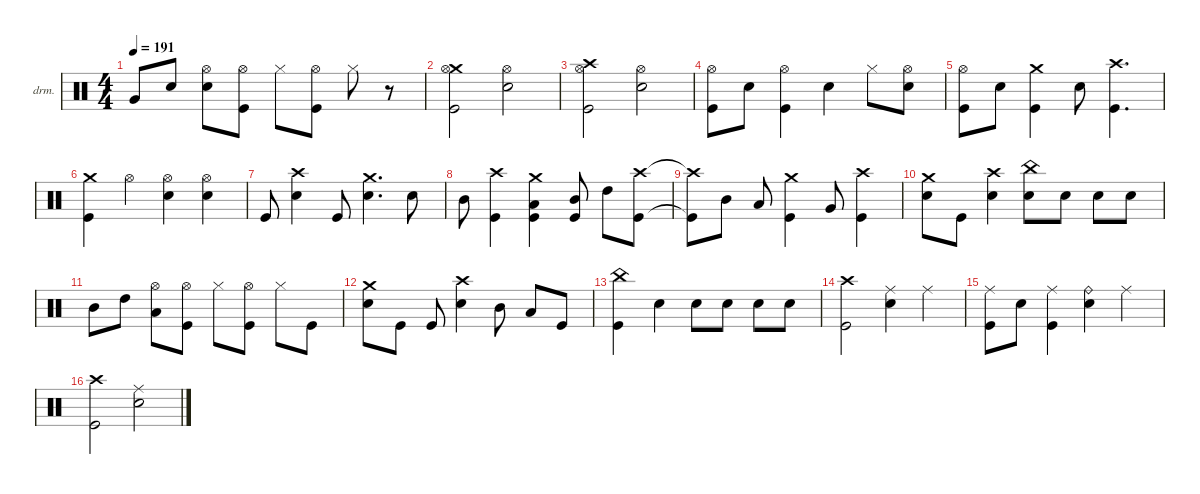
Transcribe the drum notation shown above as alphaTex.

\defaultSystemsLayout 4
\hideDynamics
\bracketExtendMode nobrackets
\firstSystemTrackNameOrientation horizontal
\otherSystemsTrackNameOrientation horizontal
\track ("Drumkit" "drm.") {instrument percussion}
\staff {score}
\articulation defaults
\ts (4 4)
\tempo 191
\clef neutral
\ks c "Very Low Tom (hit)".8{dy mf beam Up} "Snare (hit) 2".8{beam Up}
("Snare (hit) 2" "Hi-Hat (open)").8{beam Down} ("Kick (hit)" "Hi-Hat (open)").8{beam Down} "Hi-Hat (closed)".8{beam Down} ("Kick (hit)" "Hi-Hat (open)").8{beam Down} "Hi-Hat (closed)".8{beam Down} r.8{beam Down} |
("Kick (hit)" "Crash medium (hit)" "Hi-Hat (open)").2{dy f beam Down} ("Hi-Hat (open)" "Snare (hit) 2").2{beam Down} |
("Kick (hit)" "Crash high (hit)" "Hi-Hat (open)").2{beam Down} ("Snare (hit) 2" "Hi-Hat (open)").2{beam Down} |
("Kick (hit)" "Hi-Hat (open)").8{beam Down} "Snare (hit) 2".8{dy mf beam Down} ("Kick (hit)" "Hi-Hat (open)").4{dy f beam Down} "Snare (hit) 2".4{beam Down} "Hi-Hat (closed)".8{beam Down} ("Hi-Hat (open)" "Snare (hit) 2").8{beam Down} |
("Kick (hit)" "Hi-Hat (open)").8{beam Down} "Snare (hit) 2".8{dy mp beam Down} ("Kick (hit)" "Crash medium (hit)").4{dy f beam Down} "Snare (hit) 2".8{beam Down} ("Crash high (hit)" "Kick (hit)").4{d beam Down} |
("Kick (hit)" "Crash medium (hit)").4{beam Down} "Hi-Hat (open)".4{beam Down} ("Hi-Hat (open)" "Snare (hit) 2").4{beam Down} ("Hi-Hat (open)" "Snare (hit) 2").4{beam Down} |
"Kick (hit)".8{beam Up} ("Snare (hit) 2" "Crash high (hit)").4{beam Down} "Kick (hit)".8{beam Up} ("Snare (hit) 2" "Crash medium (hit)").4{d beam Down} "Snare (hit) 2".8{beam Down} |
"Mid Tom (hit)".8{beam Down} ("Kick (hit)" "Crash high (hit)").4{beam Down} ("Kick (hit)" "Low Tom (hit)" "Crash medium (hit)").4{beam Down} ("Kick (hit)" "Mid Tom (hit)").8{beam Up} "High Tom (hit)".8{beam Down} ("Kick (hit)" "Crash high (hit)").8{beam Down} |
("Kick (hit)"{t} "Crash high (hit)"{t}).8{beam Down} "Mid Tom (hit)".8{beam Down} "Low Tom (hit)".8{beam Up} ("Kick (hit)" "Crash medium (hit)").4{beam Down} "Very Low Tom (hit)".8{beam Up} ("Kick (hit)" "Crash high (hit)").4{beam Down} |
("Crash medium (hit)" "Snare (hit) 2").8{beam Down} "Kick (hit)".8{beam Down} ("Snare (hit) 2" "Crash high (hit)").4{beam Down} ("Snare (hit) 2" "China (hit)").8{beam Down} "Snare (hit) 2".8{beam Down} "Snare (hit) 2".8{beam Down} "Snare (hit) 2".8{dy mf beam Down} |
"Mid Tom (hit)".8{dy f beam Down} "High Tom (hit)".8{beam Down} ("Hi-Hat (open)" "Low Tom (hit)").8{beam Down} ("Kick (hit)" "Hi-Hat (open)").8{beam Down} "Hi-Hat (closed)".8{beam Down} ("Kick (hit)" "Hi-Hat (open)").8{beam Down} "Hi-Hat (closed)".8{beam Down} "Kick (hit)".8{beam Down} |
("Snare (hit) 2" "Crash medium (hit)").8{beam Down} "Kick (hit)".8{beam Down} "Kick (hit)".8{beam Up} ("Snare (hit) 2" "Crash high (hit)").4{beam Down} "Mid Tom (hit)".8{beam Down} "Low Tom (hit)".8{beam Up} "Kick (hit)".8{beam Up} |
("Kick (hit)" "China (hit)").4{beam Down} "Snare (hit) 2".4{beam Down} "Snare (hit) 2".8{beam Down} "Snare (hit) 2".8{beam Down} "Snare (hit) 2".8{beam Down} "Snare (hit) 2".8{beam Down} |
("Kick (hit)" "Crash high (hit)").2{beam Down} ("Ride (middle)" "Snare (hit) 2").4{beam Down} "Ride (middle)".4{beam Down} |
("Kick (hit)" "Ride (middle)").8{beam Down} "Snare (hit) 2".8{dy mf beam Down} ("Kick (hit)" "Ride (middle)").4{dy f beam Down} ("Ride (bell)" "Snare (hit) 2").4{beam Down} "Ride (middle)".4{beam Down} |
("Kick (hit)" "Crash high (hit)").2{beam Down} ("Ride (middle)" "Snare (hit) 2").2{beam Down}
